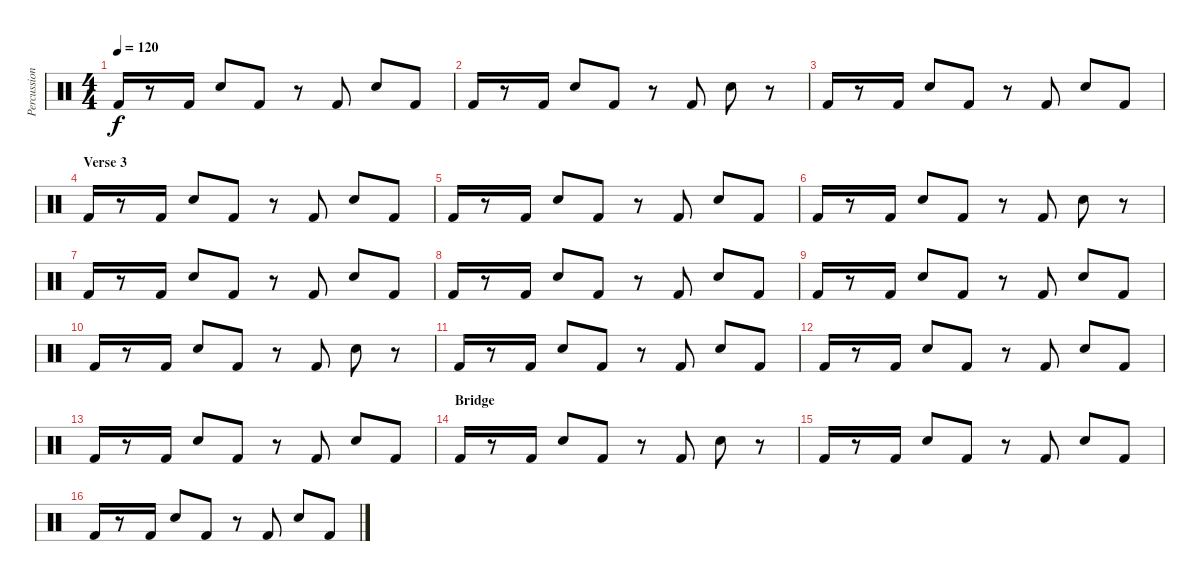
\track ("Percussion" "Percussion") {instrument percussion}
\staff {score}
\articulation defaults
\ts (4 4)
\tempo 120
\clef neutral
\ks c "Kick (hit) 2".16{dy f}
r.8 "Kick (hit) 2".16 "Electric Snare (hit)".8 "Kick (hit) 2".8 r.8 "Kick (hit) 2".8 "Snare (hit) 2".8 "Kick (hit) 2".8 |
"Kick (hit) 2".16 r.8 "Kick (hit) 2".16 "Electric Snare (hit)".8 "Kick (hit) 2".8 r.8 "Kick (hit) 2".8 "Snare (hit) 2".8 r.8 |
"Kick (hit) 2".16 r.8 "Kick (hit) 2".16 "Electric Snare (hit)".8 "Kick (hit) 2".8 r.8 "Kick (hit) 2".8 "Snare (hit) 2".8 "Kick (hit) 2".8 |
\section ("" "Verse 3")
"Kick (hit) 2".16 r.8 "Kick (hit) 2".16 "Electric Snare (hit)".8 "Kick (hit) 2".8 r.8 "Kick (hit) 2".8 "Snare (hit) 2".8 "Kick (hit) 2".8 |
"Kick (hit) 2".16 r.8 "Kick (hit) 2".16 "Electric Snare (hit)".8 "Kick (hit) 2".8 r.8 "Kick (hit) 2".8 "Snare (hit) 2".8 "Kick (hit) 2".8 |
"Kick (hit) 2".16 r.8 "Kick (hit) 2".16 "Electric Snare (hit)".8 "Kick (hit) 2".8 r.8 "Kick (hit) 2".8 "Snare (hit) 2".8 r.8 |
"Kick (hit) 2".16 r.8 "Kick (hit) 2".16 "Electric Snare (hit)".8 "Kick (hit) 2".8 r.8 "Kick (hit) 2".8 "Snare (hit) 2".8 "Kick (hit) 2".8 |
"Kick (hit) 2".16 r.8 "Kick (hit) 2".16 "Electric Snare (hit)".8 "Kick (hit) 2".8 r.8 "Kick (hit) 2".8 "Snare (hit) 2".8 "Kick (hit) 2".8 |
"Kick (hit) 2".16 r.8 "Kick (hit) 2".16 "Electric Snare (hit)".8 "Kick (hit) 2".8 r.8 "Kick (hit) 2".8 "Snare (hit) 2".8 "Kick (hit) 2".8 |
"Kick (hit) 2".16 r.8 "Kick (hit) 2".16 "Electric Snare (hit)".8 "Kick (hit) 2".8 r.8 "Kick (hit) 2".8 "Snare (hit) 2".8 r.8 |
"Kick (hit) 2".16 r.8 "Kick (hit) 2".16 "Electric Snare (hit)".8 "Kick (hit) 2".8 r.8 "Kick (hit) 2".8 "Snare (hit) 2".8 "Kick (hit) 2".8 |
"Kick (hit) 2".16 r.8 "Kick (hit) 2".16 "Electric Snare (hit)".8 "Kick (hit) 2".8 r.8 "Kick (hit) 2".8 "Snare (hit) 2".8 "Kick (hit) 2".8 |
"Kick (hit) 2".16 r.8 "Kick (hit) 2".16 "Electric Snare (hit)".8 "Kick (hit) 2".8 r.8 "Kick (hit) 2".8 "Snare (hit) 2".8 "Kick (hit) 2".8 |
\section ("" "Bridge")
"Kick (hit) 2".16 r.8 "Kick (hit) 2".16 "Electric Snare (hit)".8 "Kick (hit) 2".8 r.8 "Kick (hit) 2".8 "Snare (hit) 2".8 r.8 |
"Kick (hit) 2".16 r.8 "Kick (hit) 2".16 "Electric Snare (hit)".8 "Kick (hit) 2".8 r.8 "Kick (hit) 2".8 "Snare (hit) 2".8 "Kick (hit) 2".8 |
"Kick (hit) 2".16 r.8 "Kick (hit) 2".16 "Electric Snare (hit)".8 "Kick (hit) 2".8 r.8 "Kick (hit) 2".8 "Snare (hit) 2".8 "Kick (hit) 2".8
